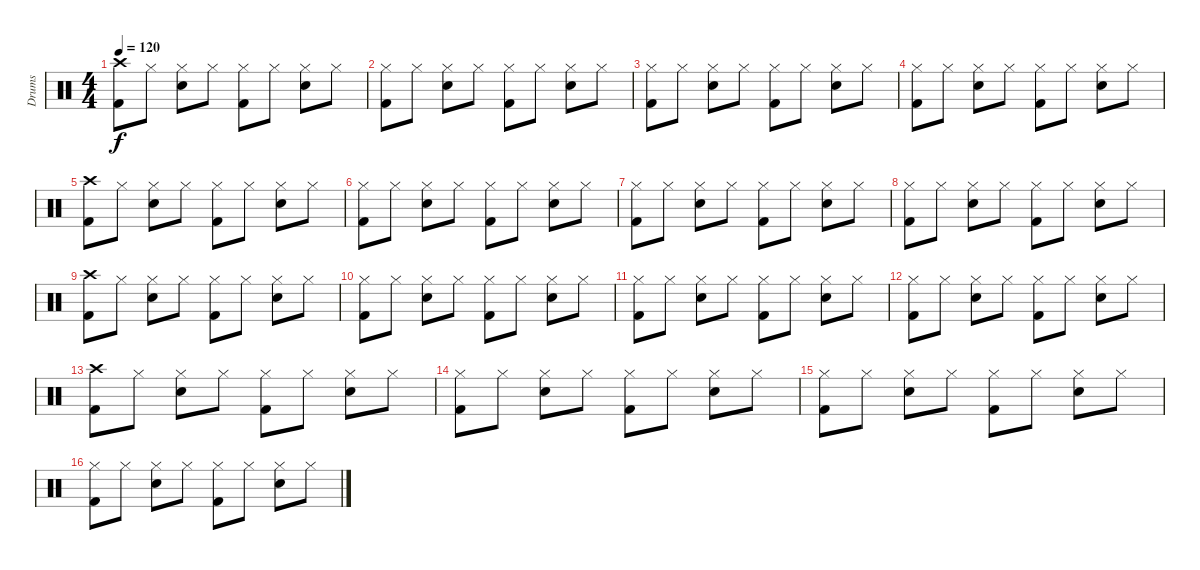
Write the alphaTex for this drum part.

\track ("Drums" "Drums") {instrument percussion}
\staff {score}
\articulation defaults
\ts (4 4)
\tempo 120
\clef neutral
\ks c
("Crash high (hit)" "Kick (hit) 2").8{dy f} "Hi-Hat (closed)".8 ("Hi-Hat (closed)" "Electric Snare (hit)").8 "Hi-Hat (closed)".8 ("Hi-Hat (closed)" "Kick (hit) 2").8 "Hi-Hat (closed)".8 ("Hi-Hat (closed)" "Electric Snare (hit)").8 "Hi-Hat (closed)".8 |
("Hi-Hat (closed)" "Kick (hit) 2").8 "Hi-Hat (closed)".8 ("Hi-Hat (closed)" "Electric Snare (hit)").8 "Hi-Hat (closed)".8 ("Hi-Hat (closed)" "Kick (hit) 2").8 "Hi-Hat (closed)".8 ("Hi-Hat (closed)" "Electric Snare (hit)").8 "Hi-Hat (closed)".8 |
("Hi-Hat (closed)" "Kick (hit) 2").8 "Hi-Hat (closed)".8 ("Hi-Hat (closed)" "Electric Snare (hit)").8 "Hi-Hat (closed)".8 ("Hi-Hat (closed)" "Kick (hit) 2").8 "Hi-Hat (closed)".8 ("Hi-Hat (closed)" "Electric Snare (hit)").8 "Hi-Hat (closed)".8 |
("Hi-Hat (closed)" "Kick (hit) 2").8 "Hi-Hat (closed)".8 ("Hi-Hat (closed)" "Electric Snare (hit)").8 "Hi-Hat (closed)".8 ("Hi-Hat (closed)" "Kick (hit) 2").8 "Hi-Hat (closed)".8 ("Hi-Hat (closed)" "Electric Snare (hit)").8 "Hi-Hat (closed)".8 |
("Crash high (hit)" "Kick (hit) 2").8 "Hi-Hat (closed)".8 ("Hi-Hat (closed)" "Electric Snare (hit)").8 "Hi-Hat (closed)".8 ("Hi-Hat (closed)" "Kick (hit) 2").8 "Hi-Hat (closed)".8 ("Hi-Hat (closed)" "Electric Snare (hit)").8 "Hi-Hat (closed)".8 |
("Hi-Hat (closed)" "Kick (hit) 2").8 "Hi-Hat (closed)".8 ("Hi-Hat (closed)" "Electric Snare (hit)").8 "Hi-Hat (closed)".8 ("Hi-Hat (closed)" "Kick (hit) 2").8 "Hi-Hat (closed)".8 ("Hi-Hat (closed)" "Electric Snare (hit)").8 "Hi-Hat (closed)".8 |
("Hi-Hat (closed)" "Kick (hit) 2").8 "Hi-Hat (closed)".8 ("Hi-Hat (closed)" "Electric Snare (hit)").8 "Hi-Hat (closed)".8 ("Hi-Hat (closed)" "Kick (hit) 2").8 "Hi-Hat (closed)".8 ("Hi-Hat (closed)" "Electric Snare (hit)").8 "Hi-Hat (closed)".8 |
("Hi-Hat (closed)" "Kick (hit) 2").8 "Hi-Hat (closed)".8 ("Hi-Hat (closed)" "Electric Snare (hit)").8 "Hi-Hat (closed)".8 ("Hi-Hat (closed)" "Kick (hit) 2").8 "Hi-Hat (closed)".8 ("Hi-Hat (closed)" "Electric Snare (hit)").8 "Hi-Hat (closed)".8 |
("Crash high (hit)" "Kick (hit) 2").8 "Hi-Hat (closed)".8 ("Hi-Hat (closed)" "Electric Snare (hit)").8 "Hi-Hat (closed)".8 ("Hi-Hat (closed)" "Kick (hit) 2").8 "Hi-Hat (closed)".8 ("Hi-Hat (closed)" "Electric Snare (hit)").8 "Hi-Hat (closed)".8 |
("Hi-Hat (closed)" "Kick (hit) 2").8 "Hi-Hat (closed)".8 ("Hi-Hat (closed)" "Electric Snare (hit)").8 "Hi-Hat (closed)".8 ("Hi-Hat (closed)" "Kick (hit) 2").8 "Hi-Hat (closed)".8 ("Hi-Hat (closed)" "Electric Snare (hit)").8 "Hi-Hat (closed)".8 |
("Hi-Hat (closed)" "Kick (hit) 2").8 "Hi-Hat (closed)".8 ("Hi-Hat (closed)" "Electric Snare (hit)").8 "Hi-Hat (closed)".8 ("Hi-Hat (closed)" "Kick (hit) 2").8 "Hi-Hat (closed)".8 ("Hi-Hat (closed)" "Electric Snare (hit)").8 "Hi-Hat (closed)".8 |
("Hi-Hat (closed)" "Kick (hit) 2").8 "Hi-Hat (closed)".8 ("Hi-Hat (closed)" "Electric Snare (hit)").8 "Hi-Hat (closed)".8 ("Hi-Hat (closed)" "Kick (hit) 2").8 "Hi-Hat (closed)".8 ("Hi-Hat (closed)" "Electric Snare (hit)").8 "Hi-Hat (closed)".8 |
("Crash high (hit)" "Kick (hit) 2").8 "Hi-Hat (closed)".8 ("Hi-Hat (closed)" "Electric Snare (hit)").8 "Hi-Hat (closed)".8 ("Hi-Hat (closed)" "Kick (hit) 2").8 "Hi-Hat (closed)".8 ("Hi-Hat (closed)" "Electric Snare (hit)").8 "Hi-Hat (closed)".8 |
("Hi-Hat (closed)" "Kick (hit) 2").8 "Hi-Hat (closed)".8 ("Hi-Hat (closed)" "Electric Snare (hit)").8 "Hi-Hat (closed)".8 ("Hi-Hat (closed)" "Kick (hit) 2").8 "Hi-Hat (closed)".8 ("Hi-Hat (closed)" "Electric Snare (hit)").8 "Hi-Hat (closed)".8 |
("Hi-Hat (closed)" "Kick (hit) 2").8 "Hi-Hat (closed)".8 ("Hi-Hat (closed)" "Electric Snare (hit)").8 "Hi-Hat (closed)".8 ("Hi-Hat (closed)" "Kick (hit) 2").8 "Hi-Hat (closed)".8 ("Hi-Hat (closed)" "Electric Snare (hit)").8 "Hi-Hat (closed)".8 |
("Hi-Hat (closed)" "Kick (hit) 2").8 "Hi-Hat (closed)".8 ("Hi-Hat (closed)" "Electric Snare (hit)").8 "Hi-Hat (closed)".8 ("Hi-Hat (closed)" "Kick (hit) 2").8 "Hi-Hat (closed)".8 ("Hi-Hat (closed)" "Electric Snare (hit)").8 "Hi-Hat (closed)".8
